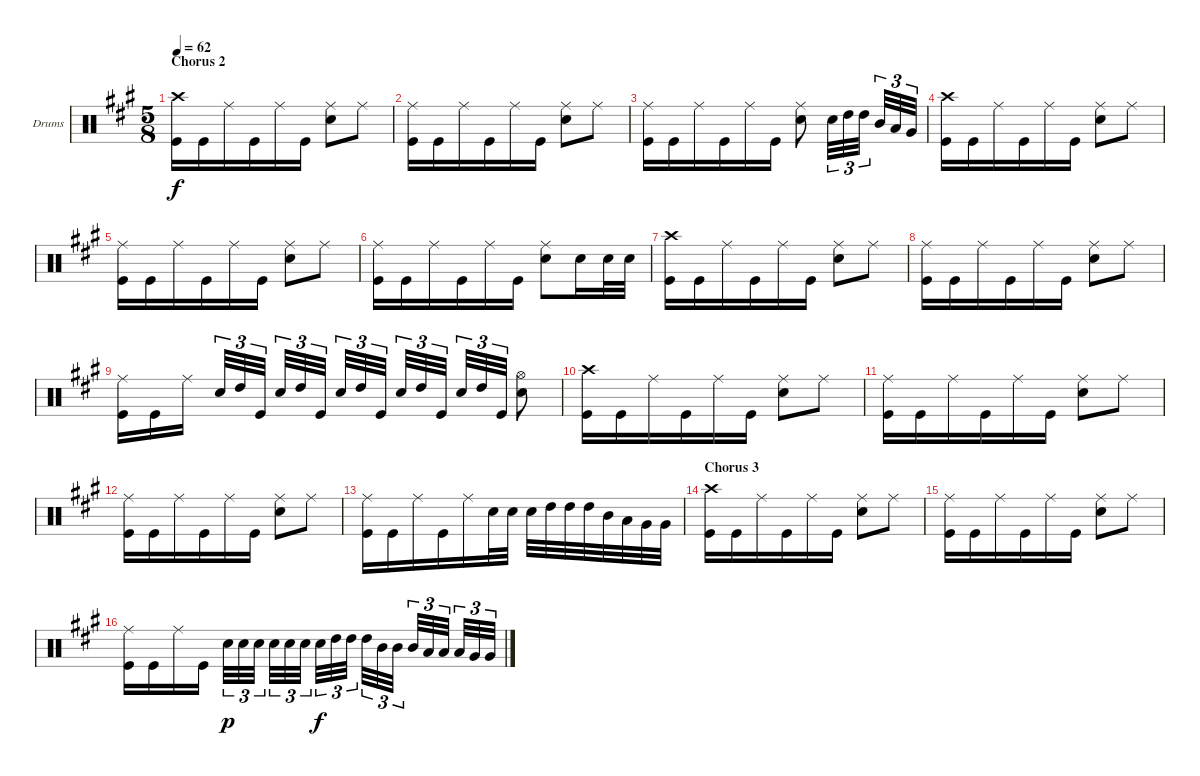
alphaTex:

\defaultSystemsLayout 4
\bracketExtendMode groupsimilarinstruments
\firstSystemTrackNameOrientation horizontal
\otherSystemsTrackNameOrientation horizontal
\track ("Drums" "Drums") {instrument percussion}
\staff {score}
\articulation defaults
\ts (5 8)
\section ("" "Chorus 2")
\tempo 62
\clef neutral
\ks f#minor
("Kick (hit)" "Crash high (hit)").16{dy f} "Kick (hit)".16 "Ride (middle)".16 "Kick (hit)".16 "Ride (middle)".16 "Kick (hit)".16 ("Snare (hit) 2" "Ride (middle)").8 "Ride (middle)".8 |
("Kick (hit)" "Ride (middle)").16 "Kick (hit)".16 "Ride (middle)".16 "Kick (hit)".16 "Ride (middle)".16 "Kick (hit)".16 ("Snare (hit) 2" "Ride (middle)").8 "Ride (middle)".8 |
("Kick (hit)" "Ride (middle)").16 "Kick (hit)".16 "Ride (middle)".16 "Kick (hit)".16 "Ride (middle)".16 "Kick (hit)".16 ("Snare (hit) 2" "Ride (middle)").8 "Snare (hit) 2".32{tu (3 2)} "High Tom (hit)".32{tu (3 2)} "High Tom (hit)".32{tu (3 2)} "Mid Tom (hit)".32{tu (3 2)} "Low Tom (hit)".32{tu (3 2)} "Very Low Tom (hit)".32{tu (3 2)} |
("Kick (hit)" "Crash high (hit)").16 "Kick (hit)".16 "Ride (middle)".16 "Kick (hit)".16 "Ride (middle)".16 "Kick (hit)".16 ("Snare (hit) 2" "Ride (middle)").8 "Ride (middle)".8 |
("Kick (hit)" "Ride (middle)").16 "Kick (hit)".16 "Ride (middle)".16 "Kick (hit)".16 "Ride (middle)".16 "Kick (hit)".16 ("Snare (hit) 2" "Ride (middle)").8 "Ride (middle)".8 |
("Kick (hit)" "Ride (middle)").16 "Kick (hit)".16 "Ride (middle)".16 "Kick (hit)".16 "Ride (middle)".16 "Kick (hit)".16 ("Snare (hit) 2" "Ride (middle)").8 "Snare (hit) 2".16 "Snare (hit) 2".32 "Snare (hit) 2".32 |
("Kick (hit)" "Crash high (hit)").16 "Kick (hit)".16 "Ride (middle)".16 "Kick (hit)".16 "Ride (middle)".16 "Kick (hit)".16 ("Snare (hit) 2" "Ride (middle)").8 "Ride (middle)".8 |
("Kick (hit)" "Ride (middle)").16 "Kick (hit)".16 "Ride (middle)".16 "Kick (hit)".16 "Ride (middle)".16 "Kick (hit)".16 ("Snare (hit) 2" "Ride (middle)").8 "Ride (middle)".8 |
("Kick (hit)" "Ride (middle)").16 "Kick (hit)".16 "Ride (middle)".16 "Snare (hit) 2".32{tu (3 2)} "High Tom (hit)".32{tu (3 2)} "Kick (hit)".32{tu (3 2)} "Snare (hit) 2".32{tu (3 2)} "High Tom (hit)".32{tu (3 2)} "Kick (hit)".32{tu (3 2)} "Snare (hit) 2".32{tu (3 2)} "High Tom (hit)".32{tu (3 2)} "Kick (hit)".32{tu (3 2)} "Snare (hit) 2".32{tu (3 2)} "High Tom (hit)".32{tu (3 2)} "Kick (hit)".32{tu (3 2)} "Snare (hit) 2".32{tu (3 2)} "High Tom (hit)".32{tu (3 2)} "Kick (hit)".32{tu (3 2)} ("Snare (hit) 2" "Hi-Hat (open)").8 |
("Kick (hit)" "Crash high (hit)").16 "Kick (hit)".16 "Ride (middle)".16 "Kick (hit)".16 "Ride (middle)".16 "Kick (hit)".16 ("Snare (hit) 2" "Ride (middle)").8 "Ride (middle)".8 |
("Kick (hit)" "Ride (middle)").16 "Kick (hit)".16 "Ride (middle)".16 "Kick (hit)".16 "Ride (middle)".16 "Kick (hit)".16 ("Snare (hit) 2" "Ride (middle)").8 "Ride (middle)".8 |
("Kick (hit)" "Ride (middle)").16 "Kick (hit)".16 "Ride (middle)".16 "Kick (hit)".16 "Ride (middle)".16 "Kick (hit)".16 ("Snare (hit) 2" "Ride (middle)").8 "Ride (middle)".8 |
("Kick (hit)" "Ride (middle)").16 "Kick (hit)".16 "Ride (middle)".16 "Kick (hit)".16 "Ride (middle)".16 "Snare (hit) 2".32 "Snare (hit) 2".32 "Snare (hit) 2".32 "High Tom (hit)".32 "High Tom (hit)".32 "High Tom (hit)".32 "Mid Tom (hit)".32 "Low Tom (hit)".32 "Very Low Tom (hit)".32 "Very Low Tom (hit)".32 |
\section ("" "Chorus 3")
("Kick (hit)" "Crash high (hit)").16 "Kick (hit)".16 "Ride (middle)".16 "Kick (hit)".16 "Ride (middle)".16 "Kick (hit)".16 ("Snare (hit) 2" "Ride (middle)").8 "Ride (middle)".8 |
("Kick (hit)" "Ride (middle)").16 "Kick (hit)".16 "Ride (middle)".16 "Kick (hit)".16 "Ride (middle)".16 "Kick (hit)".16 ("Snare (hit) 2" "Ride (middle)").8 "Ride (middle)".8 |
("Kick (hit)" "Ride (middle)").16 "Kick (hit)".16 "Ride (middle)".16 "Kick (hit)".16 "Snare (hit) 2".32{tu (3 2) dy p} "Snare (hit) 2".32{tu (3 2)} "Snare (hit) 2".32{tu (3 2)} "Snare (hit) 2".32{tu (3 2)} "Snare (hit) 2".32{tu (3 2)} "Snare (hit) 2".32{tu (3 2)} "Snare (hit) 2".32{tu (3 2) dy f} "High Tom (hit)".32{tu (3 2)} "High Tom (hit)".32{tu (3 2)} "High Tom (hit)".32{tu (3 2)} "Mid Tom (hit)".32{tu (3 2)} "Mid Tom (hit)".32{tu (3 2)} "Mid Tom (hit)".32{tu (3 2)} "Low Tom (hit)".32{tu (3 2)} "Low Tom (hit)".32{tu (3 2)} "Low Tom (hit)".32{tu (3 2)} "Very Low Tom (hit)".32{tu (3 2)} "Very Low Tom (hit)".32{tu (3 2)}
